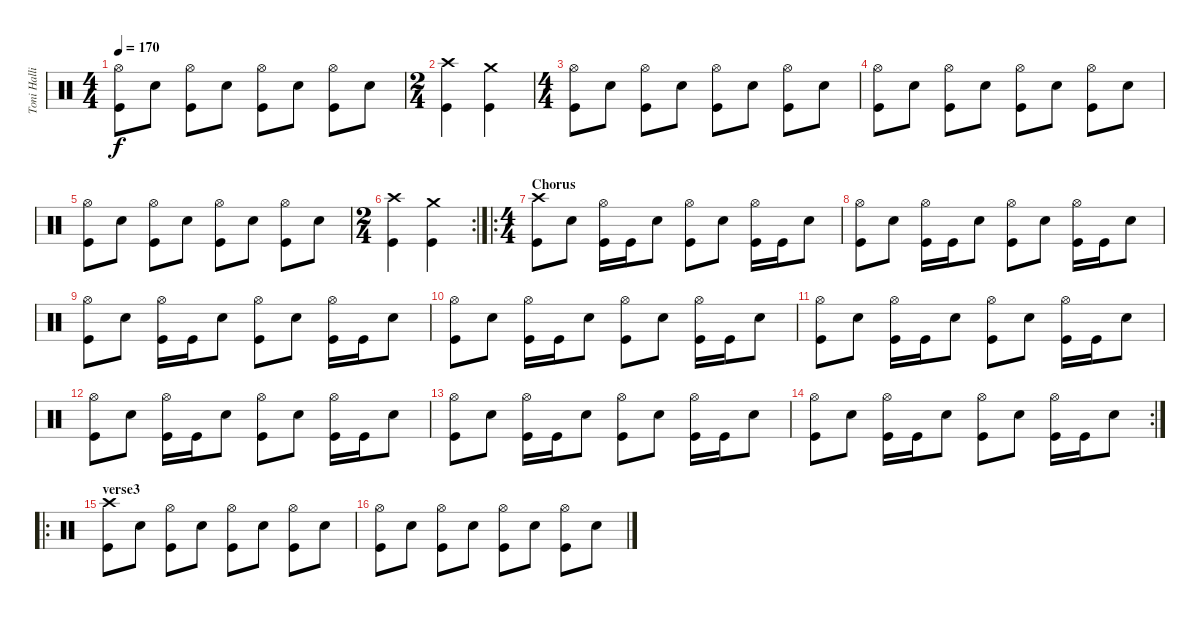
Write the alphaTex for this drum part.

\track ("Toni Hallio" "Toni Halli") {instrument percussion}
\staff {score}
\articulation defaults
\ts (4 4)
\tempo 170
\clef neutral
\ks c
("Hi-Hat (open)" "Kick (hit)").8{dy f} "Snare (hit) 2".8 ("Hi-Hat (open)" "Kick (hit)").8 "Snare (hit) 2".8 ("Hi-Hat (open)" "Kick (hit)").8 "Snare (hit) 2".8 ("Hi-Hat (open)" "Kick (hit)").8 "Snare (hit) 2".8 |
\ts (2 4)
("Crash high (hit)" "Kick (hit)").4 ("Crash medium (hit)" "Kick (hit)").4 |
\ts (4 4)
("Hi-Hat (open)" "Kick (hit)").8 "Snare (hit) 2".8 ("Hi-Hat (open)" "Kick (hit)").8 "Snare (hit) 2".8 ("Hi-Hat (open)" "Kick (hit)").8 "Snare (hit) 2".8 ("Hi-Hat (open)" "Kick (hit)").8 "Snare (hit) 2".8 |
("Hi-Hat (open)" "Kick (hit)").8 "Snare (hit) 2".8 ("Hi-Hat (open)" "Kick (hit)").8 "Snare (hit) 2".8 ("Hi-Hat (open)" "Kick (hit)").8 "Snare (hit) 2".8 ("Hi-Hat (open)" "Kick (hit)").8 "Snare (hit) 2".8 |
("Hi-Hat (open)" "Kick (hit)").8 "Snare (hit) 2".8 ("Hi-Hat (open)" "Kick (hit)").8 "Snare (hit) 2".8 ("Hi-Hat (open)" "Kick (hit)").8 "Snare (hit) 2".8 ("Hi-Hat (open)" "Kick (hit)").8 "Snare (hit) 2".8 |
\rc 2
\ts (2 4)
("Crash high (hit)" "Kick (hit)").4 ("Crash medium (hit)" "Kick (hit)").4 |
\ro
\ts (4 4)
\section ("" "Chorus")
("Crash high (hit)" "Kick (hit)").8 "Snare (hit) 2".8 ("Hi-Hat (open)" "Kick (hit)").16 "Kick (hit)".16 "Snare (hit) 2".8 ("Hi-Hat (open)" "Kick (hit)").8 "Snare (hit) 2".8 ("Hi-Hat (open)" "Kick (hit)").16 "Kick (hit)".16 "Snare (hit) 2".8 |
("Hi-Hat (open)" "Kick (hit)").8 "Snare (hit) 2".8 ("Hi-Hat (open)" "Kick (hit)").16 "Kick (hit)".16 "Snare (hit) 2".8 ("Hi-Hat (open)" "Kick (hit)").8 "Snare (hit) 2".8 ("Hi-Hat (open)" "Kick (hit)").16 "Kick (hit)".16 "Snare (hit) 2".8 |
("Hi-Hat (open)" "Kick (hit)").8 "Snare (hit) 2".8 ("Hi-Hat (open)" "Kick (hit)").16 "Kick (hit)".16 "Snare (hit) 2".8 ("Hi-Hat (open)" "Kick (hit)").8 "Snare (hit) 2".8 ("Hi-Hat (open)" "Kick (hit)").16 "Kick (hit)".16 "Snare (hit) 2".8 |
("Hi-Hat (open)" "Kick (hit)").8 "Snare (hit) 2".8 ("Hi-Hat (open)" "Kick (hit)").16 "Kick (hit)".16 "Snare (hit) 2".8 ("Hi-Hat (open)" "Kick (hit)").8 "Snare (hit) 2".8 ("Hi-Hat (open)" "Kick (hit)").16 "Kick (hit)".16 "Snare (hit) 2".8 |
("Hi-Hat (open)" "Kick (hit)").8 "Snare (hit) 2".8 ("Hi-Hat (open)" "Kick (hit)").16 "Kick (hit)".16 "Snare (hit) 2".8 ("Hi-Hat (open)" "Kick (hit)").8 "Snare (hit) 2".8 ("Hi-Hat (open)" "Kick (hit)").16 "Kick (hit)".16 "Snare (hit) 2".8 |
("Hi-Hat (open)" "Kick (hit)").8 "Snare (hit) 2".8 ("Hi-Hat (open)" "Kick (hit)").16 "Kick (hit)".16 "Snare (hit) 2".8 ("Hi-Hat (open)" "Kick (hit)").8 "Snare (hit) 2".8 ("Hi-Hat (open)" "Kick (hit)").16 "Kick (hit)".16 "Snare (hit) 2".8 |
("Hi-Hat (open)" "Kick (hit)").8 "Snare (hit) 2".8 ("Hi-Hat (open)" "Kick (hit)").16 "Kick (hit)".16 "Snare (hit) 2".8 ("Hi-Hat (open)" "Kick (hit)").8 "Snare (hit) 2".8 ("Hi-Hat (open)" "Kick (hit)").16 "Kick (hit)".16 "Snare (hit) 2".8 |
\rc 2
("Hi-Hat (open)" "Kick (hit)").8 "Snare (hit) 2".8 ("Hi-Hat (open)" "Kick (hit)").16 "Kick (hit)".16 "Snare (hit) 2".8 ("Hi-Hat (open)" "Kick (hit)").8 "Snare (hit) 2".8 ("Hi-Hat (open)" "Kick (hit)").16 "Kick (hit)".16 "Snare (hit) 2".8 |
\ro
\section ("" "verse3")
("Crash high (hit)" "Kick (hit)").8 "Snare (hit) 2".8 ("Hi-Hat (open)" "Kick (hit)").8 "Snare (hit) 2".8 ("Hi-Hat (open)" "Kick (hit)").8 "Snare (hit) 2".8 ("Hi-Hat (open)" "Kick (hit)").8 "Snare (hit) 2".8 |
("Hi-Hat (open)" "Kick (hit)").8 "Snare (hit) 2".8 ("Hi-Hat (open)" "Kick (hit)").8 "Snare (hit) 2".8 ("Hi-Hat (open)" "Kick (hit)").8 "Snare (hit) 2".8 ("Hi-Hat (open)" "Kick (hit)").8 "Snare (hit) 2".8
